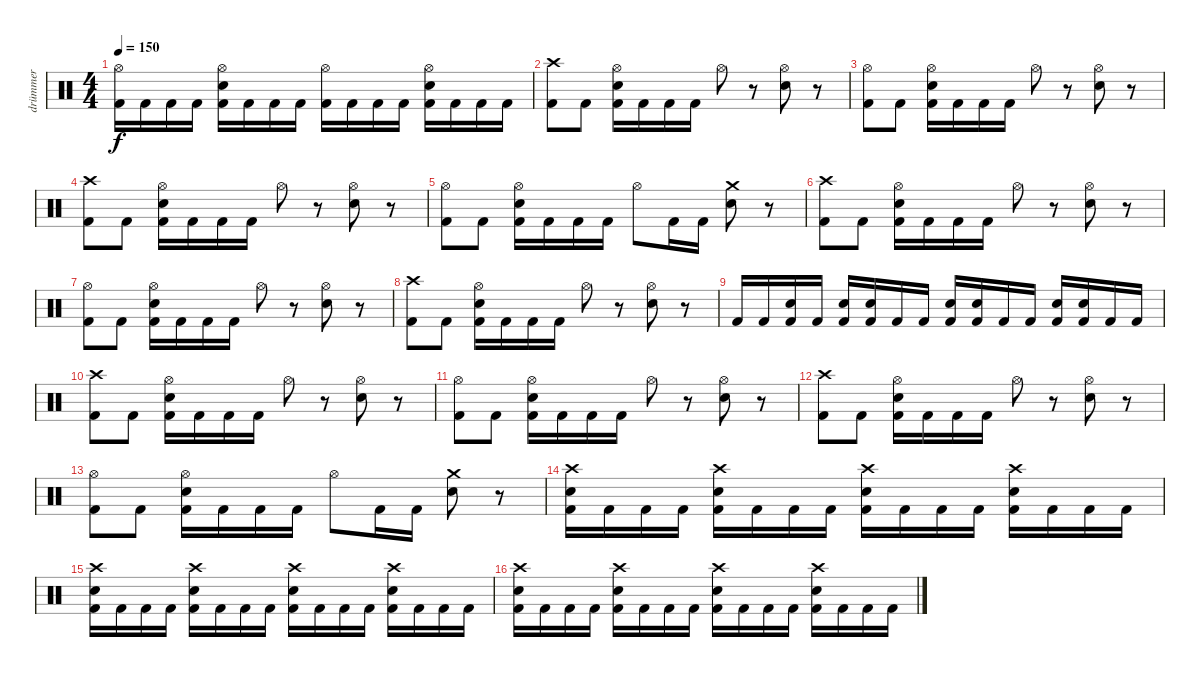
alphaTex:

\track ("drümmer" "drümmer") {instrument percussion}
\staff {score}
\articulation defaults
\ts (4 4)
\tempo 150
\clef neutral
\ks c
("Hi-Hat (open)" "Kick (hit) 2").16{dy f} "Kick (hit) 2".16 "Kick (hit) 2".16 "Kick (hit) 2".16 ("Hi-Hat (open)" "Snare (hit) 2" "Kick (hit) 2").16 "Kick (hit) 2".16 "Kick (hit) 2".16 "Kick (hit) 2".16 ("Hi-Hat (open)" "Kick (hit) 2").16 "Kick (hit) 2".16 "Kick (hit) 2".16 "Kick (hit) 2".16 ("Hi-Hat (open)" "Snare (hit) 2" "Kick (hit) 2").16 "Kick (hit) 2".16 "Kick (hit) 2".16 "Kick (hit) 2".16 |
("Crash high (hit)" "Kick (hit) 2").8 "Kick (hit) 2".8 ("Hi-Hat (open)" "Snare (hit) 2" "Kick (hit) 2").16 "Kick (hit) 2".16 "Kick (hit) 2".16 "Kick (hit) 2".16 "Hi-Hat (open)".8 r.8 ("Hi-Hat (open)" "Snare (hit) 2").8 r.8 |
("Hi-Hat (open)" "Kick (hit) 2").8 "Kick (hit) 2".8 ("Hi-Hat (open)" "Snare (hit) 2" "Kick (hit) 2").16 "Kick (hit) 2".16 "Kick (hit) 2".16 "Kick (hit) 2".16 "Hi-Hat (open)".8 r.8 ("Hi-Hat (open)" "Snare (hit) 2").8 r.8 |
("Crash high (hit)" "Kick (hit) 2").8 "Kick (hit) 2".8 ("Hi-Hat (open)" "Snare (hit) 2" "Kick (hit) 2").16 "Kick (hit) 2".16 "Kick (hit) 2".16 "Kick (hit) 2".16 "Hi-Hat (open)".8 r.8 ("Hi-Hat (open)" "Snare (hit) 2").8 r.8 |
("Hi-Hat (open)" "Kick (hit) 2").8 "Kick (hit) 2".8 ("Hi-Hat (open)" "Snare (hit) 2" "Kick (hit) 2").16 "Kick (hit) 2".16 "Kick (hit) 2".16 "Kick (hit) 2".16 "Hi-Hat (open)".8 "Kick (hit) 2".16 "Kick (hit) 2".16 ("Crash medium (hit)" "Snare (hit) 2").8 r.8 |
("Crash high (hit)" "Kick (hit) 2").8 "Kick (hit) 2".8 ("Hi-Hat (open)" "Snare (hit) 2" "Kick (hit) 2").16 "Kick (hit) 2".16 "Kick (hit) 2".16 "Kick (hit) 2".16 "Hi-Hat (open)".8 r.8 ("Hi-Hat (open)" "Snare (hit) 2").8 r.8 |
("Hi-Hat (open)" "Kick (hit) 2").8 "Kick (hit) 2".8 ("Hi-Hat (open)" "Snare (hit) 2" "Kick (hit) 2").16 "Kick (hit) 2".16 "Kick (hit) 2".16 "Kick (hit) 2".16 "Hi-Hat (open)".8 r.8 ("Hi-Hat (open)" "Snare (hit) 2").8 r.8 |
("Crash high (hit)" "Kick (hit) 2").8 "Kick (hit) 2".8 ("Hi-Hat (open)" "Snare (hit) 2" "Kick (hit) 2").16 "Kick (hit) 2".16 "Kick (hit) 2".16 "Kick (hit) 2".16 "Hi-Hat (open)".8 r.8 ("Hi-Hat (open)" "Snare (hit) 2").8 r.8 |
"Kick (hit) 2".16 "Kick (hit) 2".16 ("Snare (hit) 2" "Kick (hit) 2").16 "Kick (hit) 2".16 ("Snare (hit) 2" "Kick (hit) 2").16 ("Snare (hit) 2" "Kick (hit) 2").16 "Kick (hit) 2".16 "Kick (hit) 2".16 ("Snare (hit) 2" "Kick (hit) 2").16 ("Snare (hit) 2" "Kick (hit) 2").16 "Kick (hit) 2".16 "Kick (hit) 2".16 ("Snare (hit) 2" "Kick (hit) 2").16 ("Snare (hit) 2" "Kick (hit) 2").16 "Kick (hit) 2".16 "Kick (hit) 2".16 |
("Crash high (hit)" "Kick (hit) 2").8 "Kick (hit) 2".8 ("Hi-Hat (open)" "Snare (hit) 2" "Kick (hit) 2").16 "Kick (hit) 2".16 "Kick (hit) 2".16 "Kick (hit) 2".16 "Hi-Hat (open)".8 r.8 ("Hi-Hat (open)" "Snare (hit) 2").8 r.8 |
("Hi-Hat (open)" "Kick (hit) 2").8 "Kick (hit) 2".8 ("Hi-Hat (open)" "Snare (hit) 2" "Kick (hit) 2").16 "Kick (hit) 2".16 "Kick (hit) 2".16 "Kick (hit) 2".16 "Hi-Hat (open)".8 r.8 ("Hi-Hat (open)" "Snare (hit) 2").8 r.8 |
("Crash high (hit)" "Kick (hit) 2").8 "Kick (hit) 2".8 ("Hi-Hat (open)" "Snare (hit) 2" "Kick (hit) 2").16 "Kick (hit) 2".16 "Kick (hit) 2".16 "Kick (hit) 2".16 "Hi-Hat (open)".8 r.8 ("Hi-Hat (open)" "Snare (hit) 2").8 r.8 |
("Hi-Hat (open)" "Kick (hit) 2").8 "Kick (hit) 2".8 ("Hi-Hat (open)" "Snare (hit) 2" "Kick (hit) 2").16 "Kick (hit) 2".16 "Kick (hit) 2".16 "Kick (hit) 2".16 "Hi-Hat (open)".8 "Kick (hit) 2".16 "Kick (hit) 2".16 ("Crash medium (hit)" "Snare (hit) 2").8 r.8 |
("Crash high (hit)" "Snare (hit) 2" "Kick (hit) 2").16 "Kick (hit) 2".16 "Kick (hit) 2".16 "Kick (hit) 2".16 ("Crash high (hit)" "Snare (hit) 2" "Kick (hit) 2").16 "Kick (hit) 2".16 "Kick (hit) 2".16 "Kick (hit) 2".16 ("Crash high (hit)" "Snare (hit) 2" "Kick (hit) 2").16 "Kick (hit) 2".16 "Kick (hit) 2".16 "Kick (hit) 2".16 ("Crash high (hit)" "Snare (hit) 2" "Kick (hit) 2").16 "Kick (hit) 2".16 "Kick (hit) 2".16 "Kick (hit) 2".16 |
("Crash high (hit)" "Snare (hit) 2" "Kick (hit) 2").16 "Kick (hit) 2".16 "Kick (hit) 2".16 "Kick (hit) 2".16 ("Crash high (hit)" "Snare (hit) 2" "Kick (hit) 2").16 "Kick (hit) 2".16 "Kick (hit) 2".16 "Kick (hit) 2".16 ("Crash high (hit)" "Snare (hit) 2" "Kick (hit) 2").16 "Kick (hit) 2".16 "Kick (hit) 2".16 "Kick (hit) 2".16 ("Crash high (hit)" "Snare (hit) 2" "Kick (hit) 2").16 "Kick (hit) 2".16 "Kick (hit) 2".16 "Kick (hit) 2".16 |
("Crash high (hit)" "Snare (hit) 2" "Kick (hit) 2").16 "Kick (hit) 2".16 "Kick (hit) 2".16 "Kick (hit) 2".16 ("Crash high (hit)" "Snare (hit) 2" "Kick (hit) 2").16 "Kick (hit) 2".16 "Kick (hit) 2".16 "Kick (hit) 2".16 ("Crash high (hit)" "Snare (hit) 2" "Kick (hit) 2").16 "Kick (hit) 2".16 "Kick (hit) 2".16 "Kick (hit) 2".16 ("Crash high (hit)" "Snare (hit) 2" "Kick (hit) 2").16 "Kick (hit) 2".16 "Kick (hit) 2".16 "Kick (hit) 2".16
